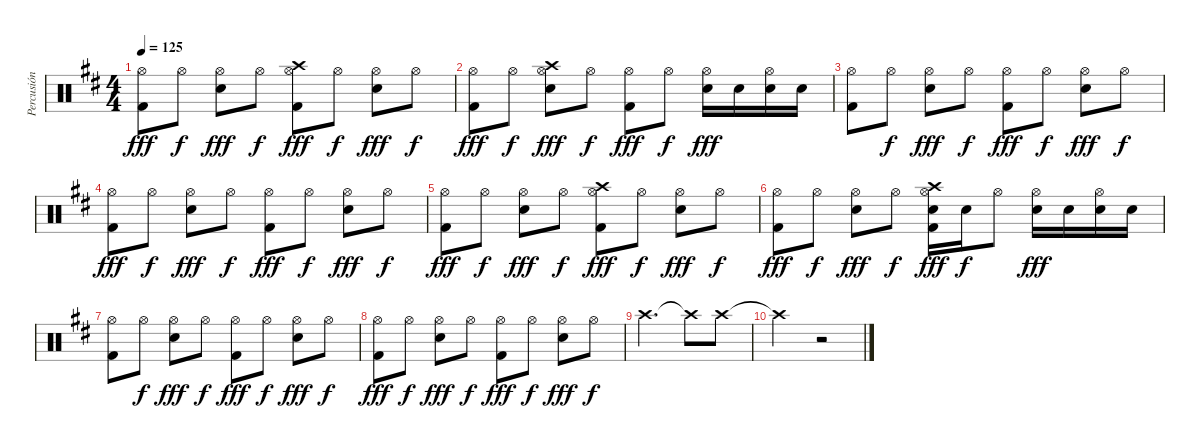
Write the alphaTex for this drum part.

\track ("Percusión" "Percusión") {instrument percussion}
\staff {score}
\articulation defaults
\ts (4 4)
\tempo 125
\clef neutral
\ks d
("Hi-Hat (open)" "Kick (hit) 2").8{dy fff} "Hi-Hat (open)".8{dy f} ("Hi-Hat (open)" "Electric Snare (hit)").8{dy fff} "Hi-Hat (open)".8{dy f} ("Crash high (hit)" "Hi-Hat (open)" "Kick (hit) 2").8{dy fff} "Hi-Hat (open)".8{dy f} ("Hi-Hat (open)" "Electric Snare (hit)").8{dy fff} "Hi-Hat (open)".8{dy f} |
("Hi-Hat (open)" "Kick (hit) 2").8{dy fff} "Hi-Hat (open)".8{dy f} ("Crash high (hit)" "Hi-Hat (open)" "Electric Snare (hit)").8{dy fff} "Hi-Hat (open)".8{dy f} ("Hi-Hat (open)" "Kick (hit) 2").8{dy fff} "Hi-Hat (open)".8{dy f} ("Hi-Hat (open)" "Electric Snare (hit)").16{dy fff} "Electric Snare (hit)".16 ("Hi-Hat (open)" "Electric Snare (hit)").16 "Electric Snare (hit)".16 |
("Hi-Hat (open)" "Kick (hit) 2").8 "Hi-Hat (open)".8{dy f} ("Hi-Hat (open)" "Electric Snare (hit)").8{dy fff} "Hi-Hat (open)".8{dy f} ("Hi-Hat (open)" "Kick (hit) 2").8{dy fff} "Hi-Hat (open)".8{dy f} ("Hi-Hat (open)" "Electric Snare (hit)").8{dy fff} "Hi-Hat (open)".8{dy f} |
("Hi-Hat (open)" "Kick (hit) 2").8{dy fff} "Hi-Hat (open)".8{dy f} ("Hi-Hat (open)" "Electric Snare (hit)").8{dy fff} "Hi-Hat (open)".8{dy f} ("Hi-Hat (open)" "Kick (hit) 2").8{dy fff} "Hi-Hat (open)".8{dy f} ("Hi-Hat (open)" "Electric Snare (hit)").8{dy fff} "Hi-Hat (open)".8{dy f} |
("Hi-Hat (open)" "Kick (hit) 2").8{dy fff} "Hi-Hat (open)".8{dy f} ("Hi-Hat (open)" "Electric Snare (hit)").8{dy fff} "Hi-Hat (open)".8{dy f} ("Crash high (hit)" "Hi-Hat (open)" "Kick (hit) 2").8{dy fff} "Hi-Hat (open)".8{dy f} ("Hi-Hat (open)" "Electric Snare (hit)").8{dy fff} "Hi-Hat (open)".8{dy f} |
("Hi-Hat (open)" "Kick (hit) 2").8{dy fff} "Hi-Hat (open)".8{dy f} ("Hi-Hat (open)" "Electric Snare (hit)").8{dy fff} "Hi-Hat (open)".8{dy f} ("Crash high (hit)" "Hi-Hat (open)" "Electric Snare (hit)" "Kick (hit) 2").16{dy fff} "Electric Snare (hit)".16{dy f} "Hi-Hat (open)".8 ("Hi-Hat (open)" "Electric Snare (hit)").16{dy fff} "Electric Snare (hit)".16 ("Hi-Hat (open)" "Electric Snare (hit)").16 "Electric Snare (hit)".16 |
("Hi-Hat (open)" "Kick (hit) 2").8 "Hi-Hat (open)".8{dy f} ("Hi-Hat (open)" "Electric Snare (hit)").8{dy fff} "Hi-Hat (open)".8{dy f} ("Hi-Hat (open)" "Kick (hit) 2").8{dy fff} "Hi-Hat (open)".8{dy f} ("Hi-Hat (open)" "Electric Snare (hit)").8{dy fff} "Hi-Hat (open)".8{dy f} |
("Hi-Hat (open)" "Kick (hit) 2").8{dy fff} "Hi-Hat (open)".8{dy f} ("Hi-Hat (open)" "Electric Snare (hit)").8{dy fff} "Hi-Hat (open)".8{dy f} ("Hi-Hat (open)" "Kick (hit) 2").8{dy fff} "Hi-Hat (open)".8{dy f} ("Hi-Hat (open)" "Electric Snare (hit)").8{dy fff} "Hi-Hat (open)".8{dy f} |
"Crash high (hit)".2{d} "Crash high (hit)"{t}.8 "Crash high (hit)".8 |
"Crash high (hit)"{t}.2 r.2
